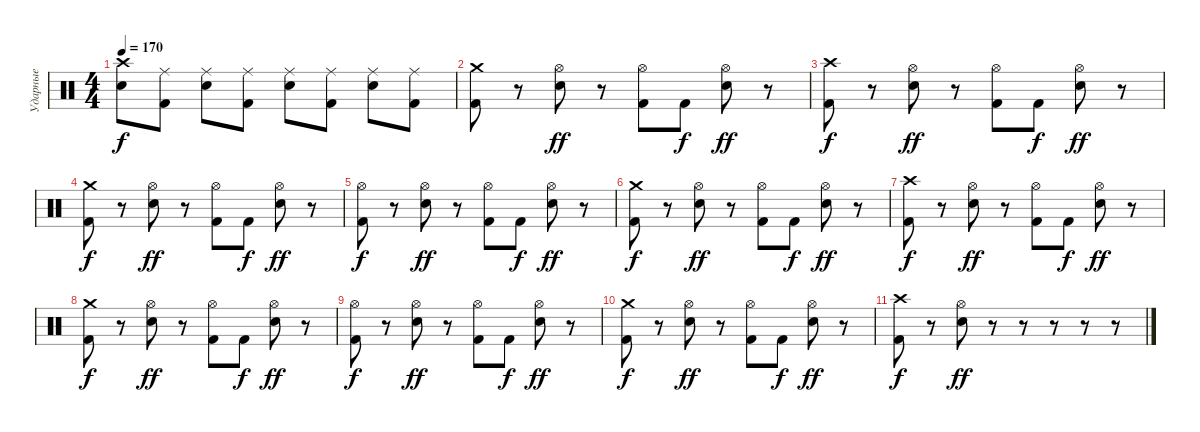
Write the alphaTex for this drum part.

\track ("Ударные" "Ударные") {instrument percussion}
\staff {score}
\articulation defaults
\ts (4 4)
\tempo 170
\clef neutral
\ks c
("Crash high (hit)" "Snare (hit) 2").8{dy f} ("Ride (middle)" "Kick (hit) 2").8 ("Ride (middle)" "Snare (hit) 2").8 ("Ride (middle)" "Kick (hit) 2").8 ("Ride (middle)" "Snare (hit) 2").8 ("Ride (middle)" "Kick (hit) 2").8 ("Ride (middle)" "Snare (hit) 2").8 ("Ride (middle)" "Kick (hit) 2").8 |
("Crash medium (hit)" "Kick (hit) 2").8 r.8 ("Hi-Hat (open)" "Snare (hit) 2").8{dy ff} r.8 ("Hi-Hat (open)" "Kick (hit) 2").8 "Kick (hit) 2".8{dy f} ("Hi-Hat (open)" "Snare (hit) 2").8{dy ff} r.8 |
("Crash high (hit)" "Kick (hit) 2").8{dy f} r.8 ("Hi-Hat (open)" "Snare (hit) 2").8{dy ff} r.8 ("Hi-Hat (open)" "Kick (hit) 2").8 "Kick (hit) 2".8{dy f} ("Hi-Hat (open)" "Snare (hit) 2").8{dy ff} r.8 |
("Crash medium (hit)" "Kick (hit) 2").8{dy f} r.8 ("Hi-Hat (open)" "Snare (hit) 2").8{dy ff} r.8 ("Hi-Hat (open)" "Kick (hit) 2").8 "Kick (hit) 2".8{dy f} ("Hi-Hat (open)" "Snare (hit) 2").8{dy ff} r.8 |
("Hi-Hat (open)" "Kick (hit) 2").8{dy f} r.8 ("Hi-Hat (open)" "Snare (hit) 2").8{dy ff} r.8 ("Hi-Hat (open)" "Kick (hit) 2").8 "Kick (hit) 2".8{dy f} ("Hi-Hat (open)" "Snare (hit) 2").8{dy ff} r.8 |
("Crash medium (hit)" "Kick (hit) 2").8{dy f} r.8 ("Hi-Hat (open)" "Snare (hit) 2").8{dy ff} r.8 ("Hi-Hat (open)" "Kick (hit) 2").8 "Kick (hit) 2".8{dy f} ("Hi-Hat (open)" "Snare (hit) 2").8{dy ff} r.8 |
("Crash high (hit)" "Kick (hit) 2").8{dy f} r.8 ("Hi-Hat (open)" "Snare (hit) 2").8{dy ff} r.8 ("Hi-Hat (open)" "Kick (hit) 2").8 "Kick (hit) 2".8{dy f} ("Hi-Hat (open)" "Snare (hit) 2").8{dy ff} r.8 |
("Crash medium (hit)" "Kick (hit) 2").8{dy f} r.8 ("Hi-Hat (open)" "Snare (hit) 2").8{dy ff} r.8 ("Hi-Hat (open)" "Kick (hit) 2").8 "Kick (hit) 2".8{dy f} ("Hi-Hat (open)" "Snare (hit) 2").8{dy ff} r.8 |
("Hi-Hat (open)" "Kick (hit) 2").8{dy f} r.8 ("Hi-Hat (open)" "Snare (hit) 2").8{dy ff} r.8 ("Hi-Hat (open)" "Kick (hit) 2").8 "Kick (hit) 2".8{dy f} ("Hi-Hat (open)" "Snare (hit) 2").8{dy ff} r.8 |
("Crash medium (hit)" "Kick (hit) 2").8{dy f} r.8 ("Hi-Hat (open)" "Snare (hit) 2").8{dy ff} r.8 ("Hi-Hat (open)" "Kick (hit) 2").8 "Kick (hit) 2".8{dy f} ("Hi-Hat (open)" "Snare (hit) 2").8{dy ff} r.8 |
("Crash high (hit)" "Kick (hit) 2").8{dy f} r.8 ("Hi-Hat (open)" "Snare (hit) 2").8{dy ff} r.8 r.8 r.8 r.8 r.8
